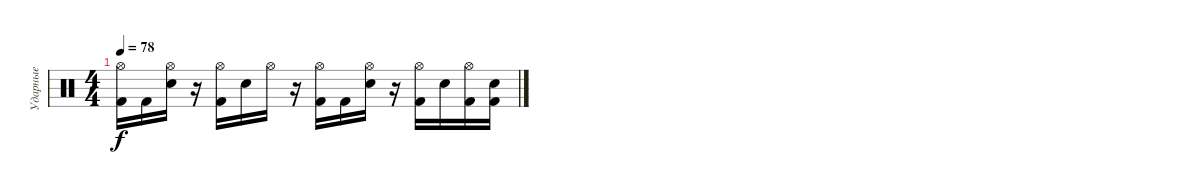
\track ("Ударные" "Ударные") {instrument percussion}
\staff {score}
\articulation defaults
\ts (4 4)
\tempo 78
\clef neutral
\ks c
("Hi-Hat (open)" "Kick (hit) 2").16{dy f} "Kick (hit) 2".16 ("Electric Snare (hit)" "Hi-Hat (open)").16 r.16 ("Hi-Hat (open)" "Kick (hit) 2").16 "Electric Snare (hit)".16 "Hi-Hat (open)".16 r.16 ("Hi-Hat (open)" "Kick (hit) 2").16 "Kick (hit) 2".16 ("Electric Snare (hit)" "Hi-Hat (open)").16 r.16 ("Hi-Hat (open)" "Kick (hit) 2").16 "Electric Snare (hit)".16 ("Hi-Hat (open)" "Kick (hit) 2").16 ("Electric Snare (hit)" "Kick (hit) 2").16
